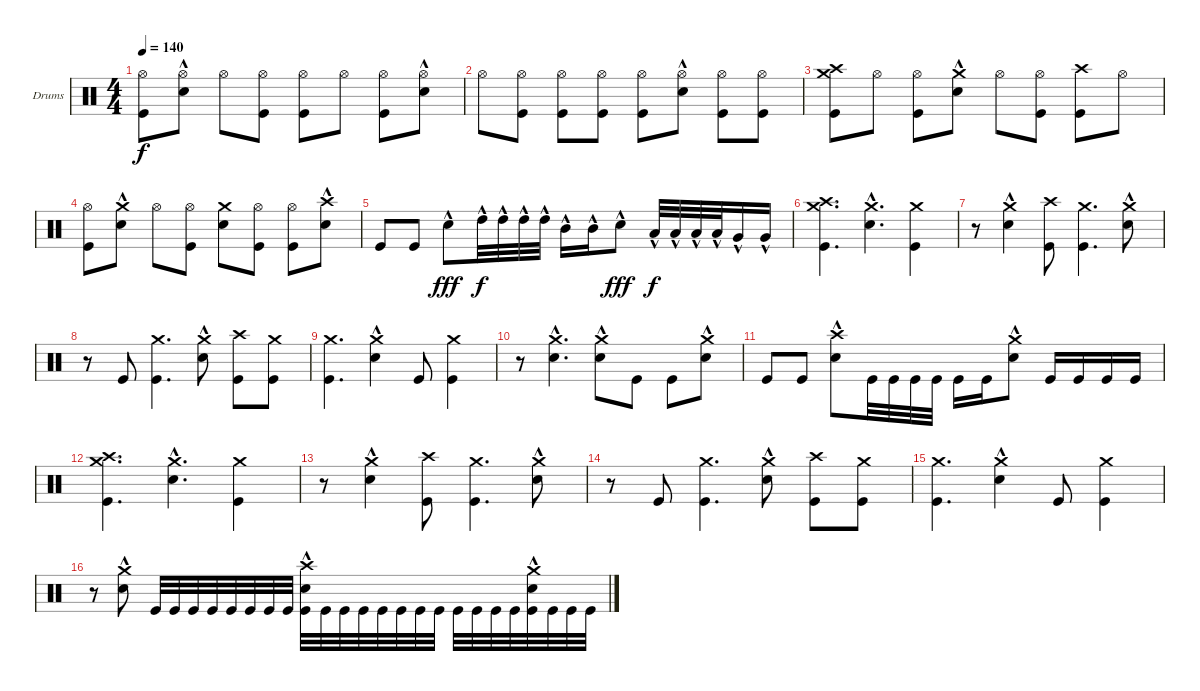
\bracketExtendMode groupsimilarinstruments
\firstSystemTrackNameOrientation horizontal
\otherSystemsTrackNameOrientation horizontal
\track ("Drumkit (Christoph)" "Drums") {instrument percussion}
\staff {score}
\articulation defaults
\ts (4 4)
\tempo 140
\clef neutral
\ks c
("Hi-Hat (open)" "Kick (hit)").8{dy f} ("Hi-Hat (open)" "Snare (hit) 2"{hac}).8 "Hi-Hat (open)".8 ("Hi-Hat (open)" "Kick (hit)").8 ("Hi-Hat (open)" "Kick (hit)").8 "Hi-Hat (open)".8 ("Hi-Hat (open)" "Kick (hit)").8 ("Hi-Hat (open)" "Snare (hit) 2"{hac}).8 |
"Hi-Hat (open)".8 ("Hi-Hat (open)" "Kick (hit)").8 ("Hi-Hat (open)" "Kick (hit)").8 ("Hi-Hat (open)" "Kick (hit)").8 ("Hi-Hat (open)" "Kick (hit)").8 ("Hi-Hat (open)" "Snare (hit) 2"{hac}).8 ("Hi-Hat (open)" "Kick (hit)").8 ("Hi-Hat (open)" "Kick (hit)").8 |
("Crash medium (hit)" "Kick (hit)" "Crash high (hit)").8 "Hi-Hat (open)".8 ("Hi-Hat (open)" "Kick (hit)").8 ("Crash medium (hit)" "Snare (hit) 2"{hac}).8 "Hi-Hat (open)".8 ("Hi-Hat (open)" "Kick (hit)").8 ("Crash high (hit)" "Kick (hit)").8 "Hi-Hat (open)".8 |
("Hi-Hat (open)" "Kick (hit)").8 ("Crash medium (hit)" "Snare (hit) 2"{hac}).8 "Hi-Hat (open)".8 ("Hi-Hat (open)" "Kick (hit)").8 ("Crash medium (hit)" "Snare (hit) 2").8 ("Hi-Hat (open)" "Kick (hit)").8 ("Hi-Hat (open)" "Kick (hit)").8 ("Crash high (hit)" "Snare (hit) 2"{hac}).8 |
"Kick (hit)".8 "Kick (hit)".8 "Snare (hit) 2"{hac}.8{dy fff} "High Tom (hit)"{hac}.32{dy f} "High Tom (hit)"{hac}.32 "High Tom (hit)"{hac}.32 "High Tom (hit)"{hac}.32 "Mid Tom (hit)"{hac}.16 "Mid Tom (hit)"{hac}.16 "Snare (hit) 2"{hac}.8{dy fff} "Low Tom (hit)"{hac}.32{dy f} "Low Tom (hit)"{hac}.32 "Low Tom (hit)"{hac}.32 "Low Tom (hit)"{hac}.32 "Very Low Tom (hit)"{hac}.16 "Very Low Tom (hit)"{hac}.16 |
("Crash medium (hit)" "Kick (hit)" "Crash high (hit)").4{d} ("Crash medium (hit)" "Snare (hit) 2"{hac}).4{d} ("Crash medium (hit)" "Kick (hit)").4 |
r.8 ("Crash medium (hit)" "Snare (hit) 2"{hac}).4 ("Crash high (hit)" "Kick (hit)").8 ("Crash medium (hit)" "Kick (hit)").4{d} ("Crash medium (hit)" "Snare (hit) 2"{hac}).8 |
r.8 "Kick (hit)".8 ("Crash medium (hit)" "Kick (hit)").4{d} ("Crash medium (hit)" "Snare (hit) 2"{hac}).8 ("Crash high (hit)" "Kick (hit)").8 ("Crash medium (hit)" "Kick (hit)").8 |
("Crash medium (hit)" "Kick (hit)").4{d} ("Crash medium (hit)" "Snare (hit) 2"{hac}).4 "Kick (hit)".8 ("Crash medium (hit)" "Kick (hit)").4 |
r.8 ("Crash medium (hit)" "Snare (hit) 2"{hac}).4{d} ("Crash medium (hit)" "Snare (hit) 2"{hac}).8 "Kick (hit)".8 "Kick (hit)".8 ("Crash medium (hit)" "Snare (hit) 2"{hac}).8 |
"Kick (hit)".8 "Kick (hit)".8 ("Crash high (hit)" "Snare (hit) 2"{hac}).8 "Kick (hit)".32 "Kick (hit)".32 "Kick (hit)".32 "Kick (hit)".32 "Kick (hit)".16 "Kick (hit)".16 ("Crash medium (hit)" "Snare (hit) 2"{hac}).8 "Kick (hit)".16 "Kick (hit)".16 "Kick (hit)".16 "Kick (hit)".16 |
("Crash medium (hit)" "Kick (hit)" "Crash high (hit)").4{d} ("Crash medium (hit)" "Snare (hit) 2"{hac}).4{d} ("Crash medium (hit)" "Kick (hit)").4 |
r.8 ("Crash medium (hit)" "Snare (hit) 2"{hac}).4 ("Crash high (hit)" "Kick (hit)").8 ("Crash medium (hit)" "Kick (hit)").4{d} ("Crash medium (hit)" "Snare (hit) 2"{hac}).8 |
r.8 "Kick (hit)".8 ("Crash medium (hit)" "Kick (hit)").4{d} ("Crash medium (hit)" "Snare (hit) 2"{hac}).8 ("Crash high (hit)" "Kick (hit)").8 ("Crash medium (hit)" "Kick (hit)").8 |
("Crash medium (hit)" "Kick (hit)").4{d} ("Crash medium (hit)" "Snare (hit) 2"{hac}).4 "Kick (hit)".8 ("Crash medium (hit)" "Kick (hit)").4 |
r.8 ("Crash medium (hit)" "Snare (hit) 2"{hac}).8 "Kick (hit)".32 "Kick (hit)".32 "Kick (hit)".32 "Kick (hit)".32 "Kick (hit)".32 "Kick (hit)".32 "Kick (hit)".32 "Kick (hit)".32 ("Crash high (hit)" "Kick (hit)" "Snare (hit) 2"{hac}).32 "Kick (hit)".32 "Kick (hit)".32 "Kick (hit)".32 "Kick (hit)".32 "Kick (hit)".32 "Kick (hit)".32 "Kick (hit)".32 "Kick (hit)".32 "Kick (hit)".32 "Kick (hit)".32 "Kick (hit)".32 ("Crash medium (hit)" "Kick (hit)" "Snare (hit) 2"{hac}).32 "Kick (hit)".32 "Kick (hit)".32 "Kick (hit)".32
